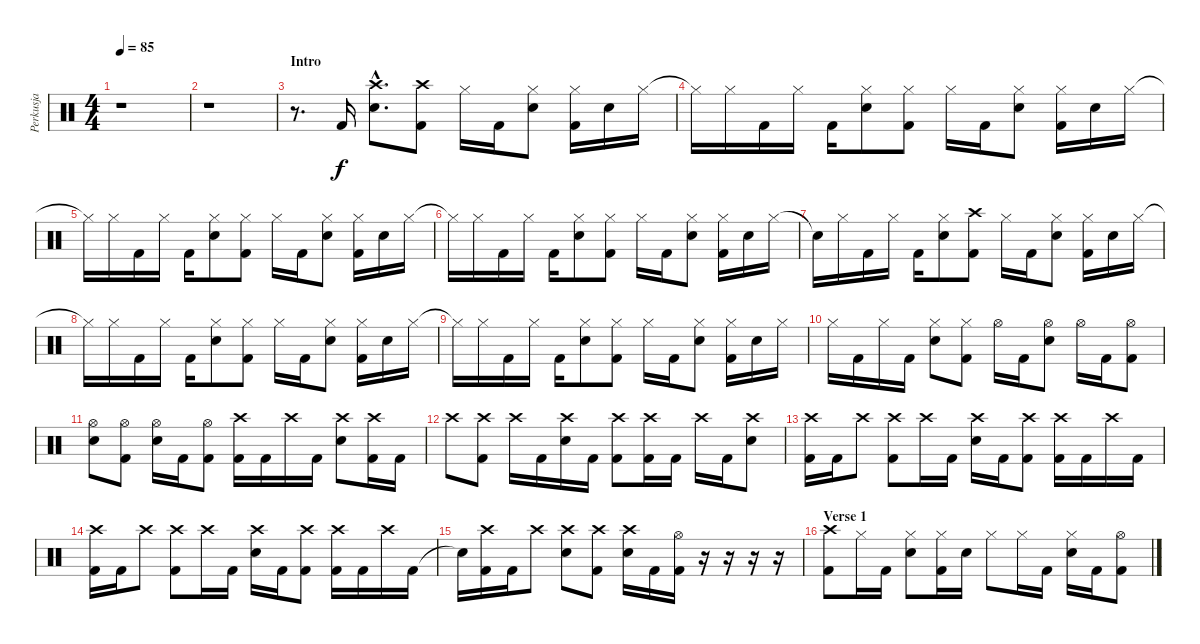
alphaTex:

\track ("Perkusja" "Perkusja") {instrument percussion}
\staff {score}
\articulation defaults
\ts (4 4)
\tempo 85
\clef neutral
\ks c
r.1{dy f} |
r.1 |
\section ("" "Intro")
r.8{d} "Kick (hit) 2".16 ("Crash high (hit)"{hac} "Snare (hit) 2"{hac}).8{d} ("Crash high (hit)" "Kick (hit) 2").8 "Hi-Hat (closed)".16 "Kick (hit) 2".16 ("Hi-Hat (closed)" "Snare (hit) 2").8 ("Hi-Hat (closed)" "Kick (hit) 2").16 "Snare (hit) 2".16 "Hi-Hat (closed)".16 |
"Hi-Hat (closed)"{t}.16 "Hi-Hat (closed)".16 "Kick (hit) 2".16 "Hi-Hat (closed)".16 "Kick (hit) 2".16 ("Hi-Hat (closed)" "Snare (hit) 2").8 ("Hi-Hat (closed)" "Kick (hit) 2").8 "Hi-Hat (closed)".16 "Kick (hit) 2".16 ("Hi-Hat (closed)" "Snare (hit) 2").8 ("Hi-Hat (closed)" "Kick (hit) 2").16 "Snare (hit) 2".16 "Hi-Hat (closed)".16 |
"Hi-Hat (closed)"{t}.16 "Hi-Hat (closed)".16 "Kick (hit) 2".16 "Hi-Hat (closed)".16 "Kick (hit) 2".16 ("Hi-Hat (closed)" "Snare (hit) 2").8 ("Hi-Hat (closed)" "Kick (hit) 2").8 "Hi-Hat (closed)".16 "Kick (hit) 2".16 ("Hi-Hat (closed)" "Snare (hit) 2").8 ("Hi-Hat (closed)" "Kick (hit) 2").16 "Snare (hit) 2".16 "Hi-Hat (closed)".16 |
"Hi-Hat (closed)"{t}.16 "Hi-Hat (closed)".16 "Kick (hit) 2".16 "Hi-Hat (closed)".16 "Kick (hit) 2".16 ("Hi-Hat (closed)" "Snare (hit) 2").8 ("Hi-Hat (closed)" "Kick (hit) 2").8 "Hi-Hat (closed)".16 "Kick (hit) 2".16 ("Hi-Hat (closed)" "Snare (hit) 2").8 ("Hi-Hat (closed)" "Kick (hit) 2").16 "Snare (hit) 2".16 "Hi-Hat (closed)".16 |
"Snare (hit)"{t}.16 "Hi-Hat (closed)".16 "Kick (hit) 2".16 "Hi-Hat (closed)".16 "Kick (hit) 2".16 ("Hi-Hat (closed)" "Snare (hit) 2").8 ("Crash high (hit)" "Kick (hit) 2").8 "Hi-Hat (closed)".16 "Kick (hit) 2".16 ("Hi-Hat (closed)" "Snare (hit) 2").8 ("Hi-Hat (closed)" "Kick (hit) 2").16 "Snare (hit) 2".16 "Hi-Hat (closed)".16 |
"Hi-Hat (closed)"{t}.16 "Hi-Hat (closed)".16 "Kick (hit) 2".16 "Hi-Hat (closed)".16 "Kick (hit) 2".16 ("Hi-Hat (closed)" "Snare (hit) 2").8 ("Hi-Hat (closed)" "Kick (hit) 2").8 "Hi-Hat (closed)".16 "Kick (hit) 2".16 ("Hi-Hat (closed)" "Snare (hit) 2").8 ("Hi-Hat (closed)" "Kick (hit) 2").16 "Snare (hit) 2".16 "Hi-Hat (closed)".16 |
"Hi-Hat (closed)"{t}.16 "Hi-Hat (closed)".16 "Kick (hit) 2".16 "Hi-Hat (closed)".16 "Kick (hit) 2".16 ("Hi-Hat (closed)" "Snare (hit) 2").8 ("Hi-Hat (closed)" "Kick (hit) 2").8 "Hi-Hat (closed)".16 "Kick (hit) 2".16 ("Hi-Hat (closed)" "Snare (hit) 2").8 ("Hi-Hat (closed)" "Kick (hit) 2").16 "Snare (hit) 2".16 "Hi-Hat (closed)".16 |
"Hi-Hat (closed)".16 "Kick (hit) 2".16 "Hi-Hat (closed)".16 "Kick (hit) 2".16 ("Hi-Hat (closed)" "Snare (hit) 2").8 ("Hi-Hat (closed)" "Kick (hit) 2").8 "Hi-Hat (open)".16 "Kick (hit) 2".16 ("Hi-Hat (open)" "Snare (hit) 2").8 "Hi-Hat (open)".16 "Kick (hit) 2".16 ("Hi-Hat (open)" "Kick (hit) 2").8 |
("Hi-Hat (open)" "Snare (hit) 2").8 ("Hi-Hat (open)" "Kick (hit) 2").8 ("Hi-Hat (open)" "Snare (hit) 2").16 "Kick (hit) 2".16 ("Hi-Hat (open)" "Kick (hit) 2").8 ("Crash high (hit)" "Kick (hit) 2").16 "Kick (hit) 2".16 "Crash high (hit)".16 "Kick (hit) 2".16 ("Crash high (hit)" "Snare (hit) 2").8 ("Crash high (hit)" "Kick (hit) 2").16 "Kick (hit) 2".16 |
"Crash high (hit)".8 ("Crash high (hit)" "Kick (hit) 2").8 "Crash high (hit)".16 "Kick (hit) 2".16 ("Crash high (hit)" "Snare (hit) 2").16 "Kick (hit) 2".16 ("Crash high (hit)" "Kick (hit) 2").8 ("Crash high (hit)" "Kick (hit) 2").16 "Kick (hit) 2".16 "Crash high (hit)".16 "Kick (hit) 2".16 ("Crash high (hit)" "Snare (hit) 2").8 |
("Crash high (hit)" "Kick (hit) 2").16 "Kick (hit) 2".16 "Crash high (hit)".8 ("Crash high (hit)" "Kick (hit) 2").8 "Crash high (hit)".16 "Kick (hit) 2".16 ("Crash high (hit)" "Snare (hit) 2").16 "Kick (hit) 2".16 ("Crash high (hit)" "Kick (hit) 2").8 ("Crash high (hit)" "Kick (hit) 2").16 "Kick (hit) 2".16 "Crash high (hit)".16 "Kick (hit) 2".16 |
("Crash high (hit)" "Kick (hit) 2").16 "Kick (hit) 2".16 "Crash high (hit)".8 ("Crash high (hit)" "Kick (hit) 2").8 "Crash high (hit)".16 "Kick (hit) 2".16 ("Crash high (hit)" "Snare (hit) 2").16 "Kick (hit) 2".16 ("Crash high (hit)" "Kick (hit) 2").8 ("Crash high (hit)" "Kick (hit) 2").16 "Kick (hit) 2".16 "Crash high (hit)".16 "Kick (hit) 2".16 |
"Snare (hit)"{t}.16 ("Crash high (hit)" "Kick (hit) 2").16 "Kick (hit) 2".16 "Crash high (hit)".8 ("Crash high (hit)" "Snare (hit) 2").8 ("Crash high (hit)" "Kick (hit) 2").8 ("Crash high (hit)" "Snare (hit) 2").16 "Kick (hit) 2".16 ("Hi-Hat (open)" "Kick (hit) 2").16 r.16 r.16 r.16 r.16 |
\section ("" "Verse 1")
("Crash high (hit)" "Kick (hit) 2").8 "Hi-Hat (closed)".16 "Kick (hit) 2".16 ("Hi-Hat (closed)" "Snare (hit) 2").8 ("Hi-Hat (closed)" "Kick (hit) 2").16 "Snare (hit) 2".16 "Hi-Hat (closed)".8 "Hi-Hat (closed)".16 "Kick (hit) 2".16 ("Hi-Hat (closed)" "Snare (hit) 2").16 "Kick (hit) 2".16 ("Hi-Hat (open)" "Kick (hit) 2").8
